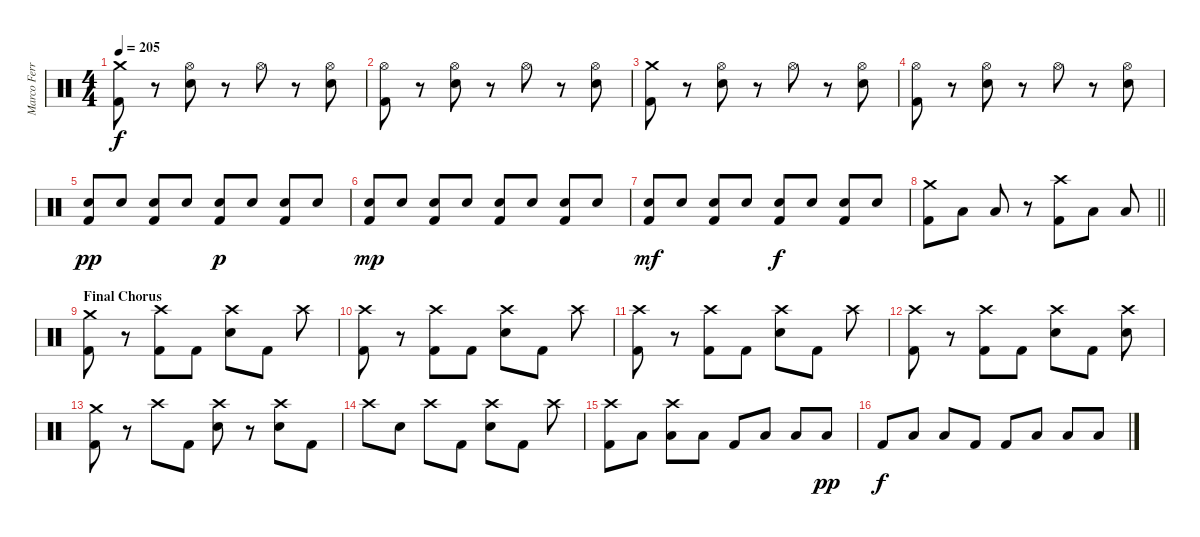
\track ("Marco Ferro" "Marco Ferr") {instrument percussion}
\staff {score}
\articulation defaults
\ts (4 4)
\tempo 205
\clef neutral
\ks c
("Crash medium (hit)" "Kick (hit) 2").8{dy f} r.8 ("Hi-Hat (open)" "Electric Snare (hit)").8 r.8 "Hi-Hat (open)".8 r.8 ("Hi-Hat (open)" "Electric Snare (hit)").8 |
("Hi-Hat (open)" "Kick (hit) 2").8 r.8 ("Hi-Hat (open)" "Electric Snare (hit)").8 r.8 "Hi-Hat (open)".8 r.8 ("Hi-Hat (open)" "Electric Snare (hit)").8 |
("Crash medium (hit)" "Kick (hit) 2").8 r.8 ("Hi-Hat (open)" "Electric Snare (hit)").8 r.8 "Hi-Hat (open)".8 r.8 ("Hi-Hat (open)" "Electric Snare (hit)").8 |
("Hi-Hat (open)" "Kick (hit) 2").8 r.8 ("Hi-Hat (open)" "Electric Snare (hit)").8 r.8 "Hi-Hat (open)".8 r.8 ("Hi-Hat (open)" "Electric Snare (hit)").8 |
("Electric Snare (hit)" "Kick (hit) 2").8{dy pp} "Electric Snare (hit)".8 ("Electric Snare (hit)" "Kick (hit) 2").8 "Electric Snare (hit)".8 ("Electric Snare (hit)" "Kick (hit) 2").8{dy p} "Electric Snare (hit)".8 ("Electric Snare (hit)" "Kick (hit) 2").8 "Electric Snare (hit)".8 |
("Electric Snare (hit)" "Kick (hit) 2").8{dy mp} "Electric Snare (hit)".8 ("Electric Snare (hit)" "Kick (hit) 2").8 "Electric Snare (hit)".8 ("Electric Snare (hit)" "Kick (hit) 2").8 "Electric Snare (hit)".8 ("Electric Snare (hit)" "Kick (hit) 2").8 "Electric Snare (hit)".8 |
("Electric Snare (hit)" "Kick (hit) 2").8{dy mf} "Electric Snare (hit)".8 ("Electric Snare (hit)" "Kick (hit) 2").8 "Electric Snare (hit)".8 ("Electric Snare (hit)" "Kick (hit) 2").8{dy f} "Electric Snare (hit)".8 ("Electric Snare (hit)" "Kick (hit) 2").8 "Electric Snare (hit)".8 |
\barLineRight lightlight
("Crash medium (hit)" "Kick (hit) 2").8 "Low Tom (hit)".8 "Low Tom (hit)".8 r.8 ("Crash high (hit)" "Kick (hit) 2").8 "Low Tom (hit)".8 "Low Tom (hit)".8 |
\section ("" "Final Chorus")
("Crash medium (hit)" "Kick (hit) 2").8 r.8 ("Crash high (hit)" "Kick (hit) 2").8 "Kick (hit) 2".8 ("Crash high (hit)" "Electric Snare (hit)").8 "Kick (hit) 2".8 "Crash high (hit)".8 |
("Crash high (hit)" "Kick (hit) 2").8 r.8 ("Crash high (hit)" "Kick (hit) 2").8 "Kick (hit) 2".8 ("Crash high (hit)" "Electric Snare (hit)").8 "Kick (hit) 2".8 "Crash high (hit)".8 |
("Crash high (hit)" "Kick (hit) 2").8 r.8 ("Crash high (hit)" "Kick (hit) 2").8 "Kick (hit) 2".8 ("Crash high (hit)" "Electric Snare (hit)").8 "Kick (hit) 2".8 "Crash high (hit)".8 |
("Crash high (hit)" "Kick (hit) 2").8 r.8 ("Crash high (hit)" "Kick (hit) 2").8 "Kick (hit) 2".8 ("Crash high (hit)" "Electric Snare (hit)").8 "Kick (hit) 2".8 ("Crash high (hit)" "Electric Snare (hit)").8 |
("Crash medium (hit)" "Kick (hit) 2").8 r.8 "Crash high (hit)".8 "Kick (hit) 2".8 ("Crash high (hit)" "Electric Snare (hit)").8 r.8 ("Crash high (hit)" "Electric Snare (hit)").8 "Kick (hit) 2".8 |
"Crash high (hit)".8 "Electric Snare (hit)".8 "Crash high (hit)".8 "Kick (hit) 2".8 ("Crash high (hit)" "Electric Snare (hit)").8 "Kick (hit) 2".8 "Crash high (hit)".8 |
("Crash high (hit)" "Kick (hit) 2").8 "Low Tom (hit)".8 ("Crash high (hit)" "Low Tom (hit)").8 "Low Floor Tom (hit)".8 "Kick (hit) 2".8 "Low Tom (hit)".8 "Low Tom (hit)".8 "Low Floor Tom (hit)".8{dy pp} |
"Kick (hit) 2".8{dy f} "Low Tom (hit)".8 "Low Tom (hit)".8 "Kick (hit) 2".8 "Kick (hit) 2".8 "Low Tom (hit)".8 "Low Tom (hit)".8 "Low Tom (hit)".8
